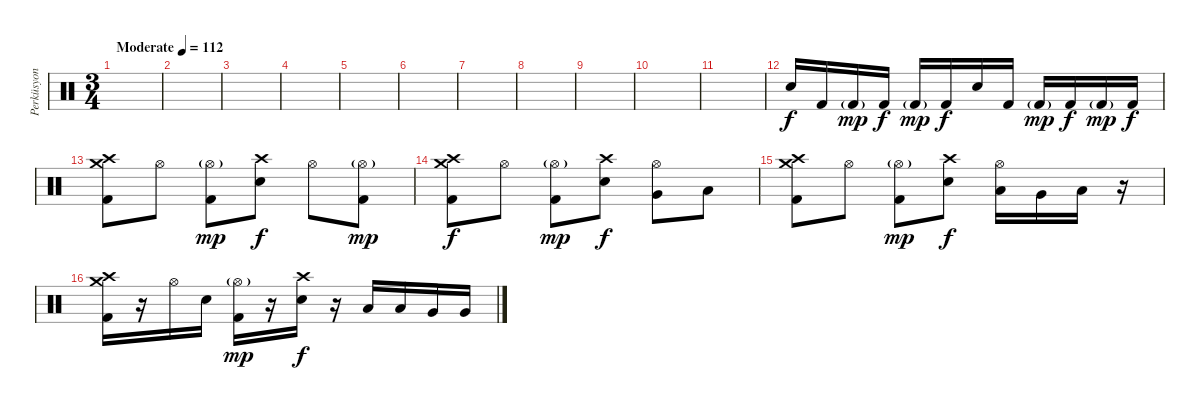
\track ("Perküsyon" "Perküsyon") {instrument percussion}
\staff {score}
\articulation defaults
\ts (3 4)
\tempo (112 "Moderate")
\clef neutral
\ks c
|
|
|
|
|
|
|
|
|
|
|
"Electric Snare (hit)".16 "Kick (hit) 2".16 "Kick (hit) 2"{g}.16{dy mp} "Kick (hit) 2".16{dy f} "Kick (hit) 2"{g}.16{dy mp} "Kick (hit) 2".16{dy f} "Electric Snare (hit)".16 "Kick (hit) 2".16 "Kick (hit) 2"{g}.16{dy mp} "Kick (hit) 2".16{dy f} "Kick (hit) 2"{g}.16{dy mp} "Kick (hit) 2".16{dy f} |
("Crash high (hit)" "Crash medium (hit)" "Kick (hit) 2").8 "Hi-Hat (open)".8 ("Hi-Hat (open)"{g} "Kick (hit) 2").8{dy mp} ("Crash high (hit)" "Electric Snare (hit)").8{dy f} "Hi-Hat (open)".8 ("Hi-Hat (open)"{g} "Kick (hit) 2").8{dy mp} |
("Crash high (hit)" "Crash medium (hit)" "Kick (hit) 2").8{dy f} "Hi-Hat (open)".8 ("Hi-Hat (open)"{g} "Kick (hit) 2").8{dy mp} ("Crash high (hit)" "Electric Snare (hit)").8{dy f} ("Hi-Hat (open)" "Very Low Tom (hit)").8 "Low Floor Tom (hit)".8 |
("Crash high (hit)" "Crash medium (hit)" "Kick (hit) 2").8 "Hi-Hat (open)".8 ("Hi-Hat (open)"{g} "Kick (hit) 2").8{dy mp} ("Crash high (hit)" "Electric Snare (hit)").8{dy f} ("Hi-Hat (open)" "Low Tom (hit)").16 "Very Low Tom (hit)".16 "Low Floor Tom (hit)".16 r.16 |
("Crash high (hit)" "Crash medium (hit)" "Kick (hit) 2").16 r.16 "Hi-Hat (open)".16 "Electric Snare (hit)".16 ("Hi-Hat (open)"{g} "Kick (hit) 2").16{dy mp} r.16 ("Crash high (hit)" "Electric Snare (hit)").16{dy f} r.16 "Low Tom (hit)".16 "Low Tom (hit)".16 "Very Low Tom (hit)".16 "Very Low Tom (hit)".16
